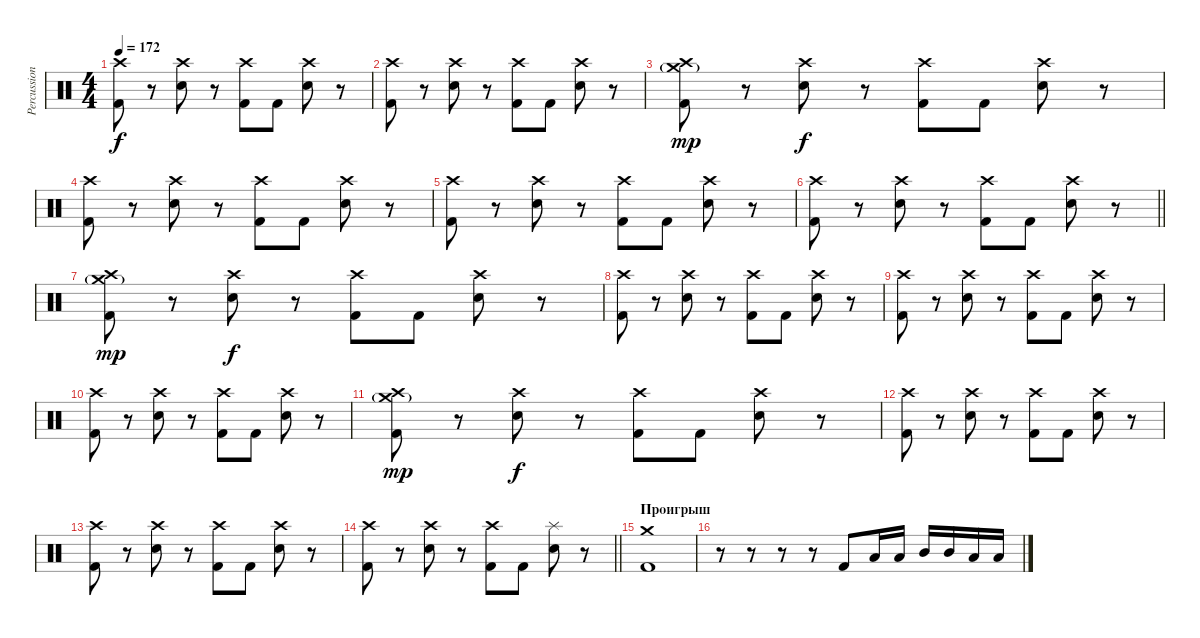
\track ("Percussion" "Percussion") {instrument percussion}
\staff {score}
\articulation defaults
\ts (4 4)
\tempo 172
\clef neutral
\ks c
("Crash high (hit)" "Kick (hit) 2").8{dy f} r.8 ("Crash high (hit)" "Snare (hit) 2").8 r.8 ("Crash high (hit)" "Kick (hit) 2").8 "Kick (hit) 2".8 ("Crash high (hit)" "Snare (hit) 2").8 r.8 |
("Crash high (hit)" "Kick (hit) 2").8 r.8 ("Crash high (hit)" "Snare (hit) 2").8 r.8 ("Crash high (hit)" "Kick (hit) 2").8 "Kick (hit) 2".8 ("Crash high (hit)" "Snare (hit) 2").8 r.8 |
("Crash high (hit)" "Crash medium (hit)"{g} "Kick (hit) 2").8{dy mp} r.8 ("Crash high (hit)" "Snare (hit) 2").8{dy f} r.8 ("Crash high (hit)" "Kick (hit) 2").8 "Kick (hit) 2".8 ("Crash high (hit)" "Snare (hit) 2").8 r.8 |
("Crash high (hit)" "Kick (hit) 2").8 r.8 ("Crash high (hit)" "Snare (hit) 2").8 r.8 ("Crash high (hit)" "Kick (hit) 2").8 "Kick (hit) 2".8 ("Crash high (hit)" "Snare (hit) 2").8 r.8 |
("Crash high (hit)" "Kick (hit) 2").8 r.8 ("Crash high (hit)" "Snare (hit) 2").8 r.8 ("Crash high (hit)" "Kick (hit) 2").8 "Kick (hit) 2".8 ("Crash high (hit)" "Snare (hit) 2").8 r.8 |
\barLineRight lightlight
("Crash high (hit)" "Kick (hit) 2").8 r.8 ("Crash high (hit)" "Snare (hit) 2").8 r.8 ("Crash high (hit)" "Kick (hit) 2").8 "Kick (hit) 2".8 ("Crash high (hit)" "Snare (hit) 2").8 r.8 |
("Crash high (hit)" "Crash medium (hit)"{g} "Kick (hit) 2").8{dy mp} r.8 ("Crash high (hit)" "Snare (hit) 2").8{dy f} r.8 ("Crash high (hit)" "Kick (hit) 2").8 "Kick (hit) 2".8 ("Crash high (hit)" "Snare (hit) 2").8 r.8 |
("Crash high (hit)" "Kick (hit) 2").8 r.8 ("Crash high (hit)" "Snare (hit) 2").8 r.8 ("Crash high (hit)" "Kick (hit) 2").8 "Kick (hit) 2".8 ("Crash high (hit)" "Snare (hit) 2").8 r.8 |
("Crash high (hit)" "Kick (hit) 2").8 r.8 ("Crash high (hit)" "Snare (hit) 2").8 r.8 ("Crash high (hit)" "Kick (hit) 2").8 "Kick (hit) 2".8 ("Crash high (hit)" "Snare (hit) 2").8 r.8 |
("Crash high (hit)" "Kick (hit) 2").8 r.8 ("Crash high (hit)" "Snare (hit) 2").8 r.8 ("Crash high (hit)" "Kick (hit) 2").8 "Kick (hit) 2".8 ("Crash high (hit)" "Snare (hit) 2").8 r.8 |
("Crash high (hit)" "Crash medium (hit)"{g} "Kick (hit) 2").8{dy mp} r.8 ("Crash high (hit)" "Snare (hit) 2").8{dy f} r.8 ("Crash high (hit)" "Kick (hit) 2").8 "Kick (hit) 2".8 ("Crash high (hit)" "Snare (hit) 2").8 r.8 |
("Crash high (hit)" "Kick (hit) 2").8 r.8 ("Crash high (hit)" "Snare (hit) 2").8 r.8 ("Crash high (hit)" "Kick (hit) 2").8 "Kick (hit) 2".8 ("Crash high (hit)" "Snare (hit) 2").8 r.8 |
("Crash high (hit)" "Kick (hit) 2").8 r.8 ("Crash high (hit)" "Snare (hit) 2").8 r.8 ("Crash high (hit)" "Kick (hit) 2").8 "Kick (hit) 2".8 ("Crash high (hit)" "Snare (hit) 2").8 r.8 |
\barLineRight lightlight
("Crash high (hit)" "Kick (hit) 2").8 r.8 ("Crash high (hit)" "Snare (hit) 2").8 r.8 ("Crash high (hit)" "Kick (hit) 2").8 "Kick (hit) 2".8 ("Splash (hit)" "Snare (hit) 2").8 r.8 |
\section ("" "Проигрыш")
("Crash medium (hit)" "Kick (hit) 2").1 |
r.8 r.8 r.8 r.8 "Kick (hit) 2".8 "Low Tom (hit)".16 "Low Tom (hit)".16 "Mid Tom (hit)".16 "Mid Tom (hit)".16 "Low Floor Tom (hit)".16 "Low Floor Tom (hit)".16
